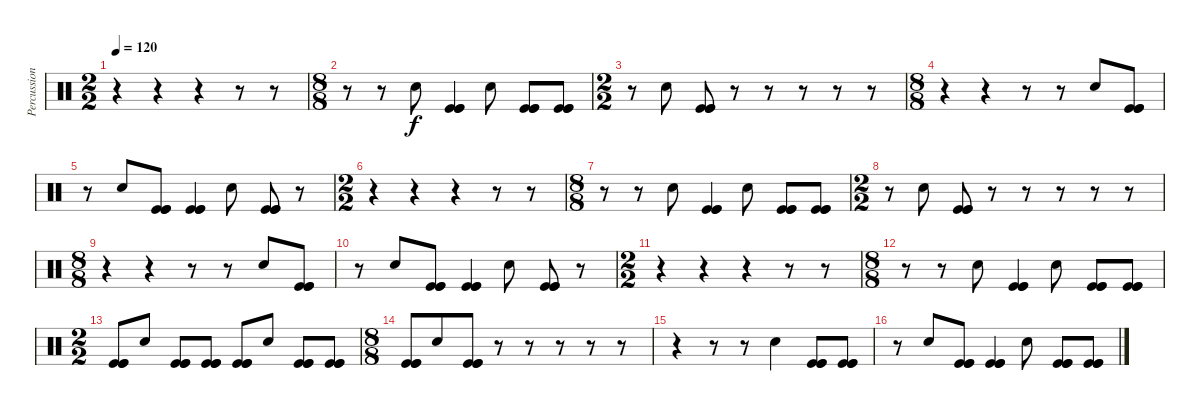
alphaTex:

\track ("Percussion" "Percussion") {instrument percussion}
\staff {score}
\articulation defaults
\ts (2 2)
\tempo 120
\clef neutral
\ks c
r.4{dy f} r.4 r.4 r.8 r.8 |
\ts (8 8)
r.8 r.8 "Electric Snare (hit)".8 ("Kick (hit)" "Kick (hit)" "Kick (hit)").4 "Electric Snare (hit)".8 ("Kick (hit)" "Kick (hit)" "Kick (hit)").8 ("Kick (hit)" "Kick (hit)" "Kick (hit)").8 |
\ts (2 2)
r.8 "Electric Snare (hit)".8 ("Kick (hit)" "Kick (hit)" "Kick (hit)").8 r.8 r.8 r.8 r.8 r.8 |
\ts (8 8)
r.4 r.4 r.8 r.8 "Electric Snare (hit)".8 ("Kick (hit)" "Kick (hit)" "Kick (hit)").8 |
r.8 "Electric Snare (hit)".8 ("Kick (hit)" "Kick (hit)" "Kick (hit)").8 ("Kick (hit)" "Kick (hit)" "Kick (hit)").4 "Electric Snare (hit)".8 ("Kick (hit)" "Kick (hit)" "Kick (hit)").8 r.8 |
\ts (2 2)
r.4 r.4 r.4 r.8 r.8 |
\ts (8 8)
r.8 r.8 "Electric Snare (hit)".8 ("Kick (hit)" "Kick (hit)" "Kick (hit)").4 "Electric Snare (hit)".8 ("Kick (hit)" "Kick (hit)" "Kick (hit)").8 ("Kick (hit)" "Kick (hit)" "Kick (hit)").8 |
\ts (2 2)
r.8 "Electric Snare (hit)".8 ("Kick (hit)" "Kick (hit)" "Kick (hit)").8 r.8 r.8 r.8 r.8 r.8 |
\ts (8 8)
r.4 r.4 r.8 r.8 "Electric Snare (hit)".8 ("Kick (hit)" "Kick (hit)" "Kick (hit)").8 |
r.8 "Electric Snare (hit)".8 ("Kick (hit)" "Kick (hit)" "Kick (hit)").8 ("Kick (hit)" "Kick (hit)" "Kick (hit)").4 "Electric Snare (hit)".8 ("Kick (hit)" "Kick (hit)" "Kick (hit)").8 r.8 |
\ts (2 2)
r.4 r.4 r.4 r.8 r.8 |
\ts (8 8)
r.8 r.8 "Electric Snare (hit)".8 ("Kick (hit)" "Kick (hit)" "Kick (hit)").4 "Electric Snare (hit)".8 ("Kick (hit)" "Kick (hit)" "Kick (hit)").8 ("Kick (hit)" "Kick (hit)" "Kick (hit)").8 |
\ts (2 2)
("Kick (hit)" "Kick (hit)" "Kick (hit)").8 "Electric Snare (hit)".8 ("Kick (hit)" "Kick (hit)" "Kick (hit)").8 ("Kick (hit)" "Kick (hit)" "Kick (hit)").8 ("Kick (hit)" "Kick (hit)" "Kick (hit)").8 "Electric Snare (hit)".8 ("Kick (hit)" "Kick (hit)" "Kick (hit)").8 ("Kick (hit)" "Kick (hit)" "Kick (hit)").8 |
\ts (8 8)
("Kick (hit)" "Kick (hit)" "Kick (hit)").8 "Electric Snare (hit)".8 ("Kick (hit)" "Kick (hit)" "Kick (hit)").8 r.8 r.8 r.8 r.8 r.8 |
r.4 r.8 r.8 "Electric Snare (hit)".4 ("Kick (hit)" "Kick (hit)" "Kick (hit)").8 ("Kick (hit)" "Kick (hit)" "Kick (hit)").8 |
r.8 "Electric Snare (hit)".8 ("Kick (hit)" "Kick (hit)" "Kick (hit)").8 ("Kick (hit)" "Kick (hit)" "Kick (hit)").4 "Electric Snare (hit)".8 ("Kick (hit)" "Kick (hit)" "Kick (hit)").8 ("Kick (hit)" "Kick (hit)" "Kick (hit)").8
